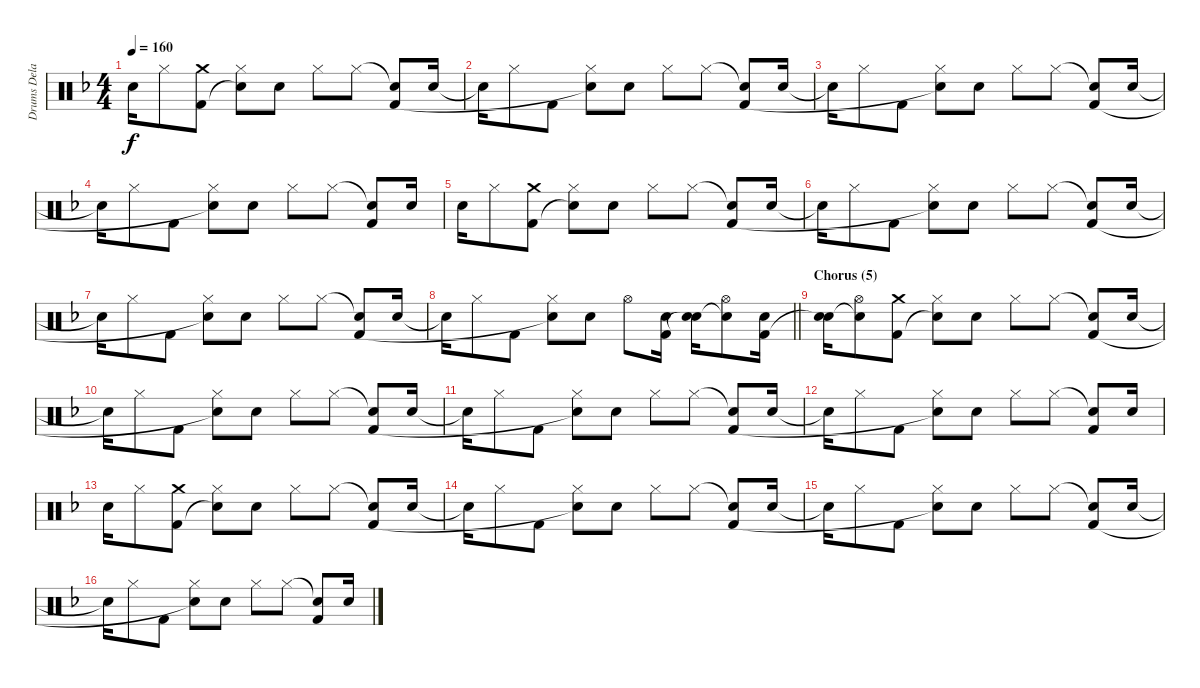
\track ("Drums Delay 2" "Drums Dela") {instrument percussion}
\staff {score}
\articulation defaults
\ts (4 4)
\tempo 160
\clef neutral
\ks f "Electric Snare (hit)".16{dy f} "Hi-Hat (closed)".8
("Crash medium (hit)" "Kick (hit) 2").8 ("Hi-Hat (closed)" "Snare (hit)"{t}).8 "Electric Snare (hit)".8 "Hi-Hat (closed)".8 "Hi-Hat (closed)".8 ("Snare (hit)"{t} "Kick (hit) 2").8 "Electric Snare (hit)".16 |
"Snare (hit)"{t}.16 "Hi-Hat (closed)".8 "Kick (hit) 2".8 ("Hi-Hat (closed)" "Snare (hit)"{t}).8 "Electric Snare (hit)".8 "Hi-Hat (closed)".8 "Hi-Hat (closed)".8 ("Snare (hit)"{t} "Kick (hit) 2").8 "Electric Snare (hit)".16 |
"Snare (hit)"{t}.16 "Hi-Hat (closed)".8 "Kick (hit) 2".8 ("Hi-Hat (closed)" "Snare (hit)"{t}).8 "Electric Snare (hit)".8 "Hi-Hat (closed)".8 "Hi-Hat (closed)".8 ("Snare (hit)"{t} "Kick (hit) 2").8 "Electric Snare (hit)".16 |
"Snare (hit)"{t}.16 "Hi-Hat (closed)".8 "Kick (hit) 2".8 ("Hi-Hat (closed)" "Snare (hit)"{t}).8 "Electric Snare (hit)".8 "Hi-Hat (closed)".8 "Hi-Hat (closed)".8 ("Snare (hit)"{t} "Kick (hit) 2").8 "Electric Snare (hit)".16 |
"Electric Snare (hit)".16 "Hi-Hat (closed)".8 ("Crash medium (hit)" "Kick (hit) 2").8 ("Hi-Hat (closed)" "Snare (hit)"{t}).8 "Electric Snare (hit)".8 "Hi-Hat (closed)".8 "Hi-Hat (closed)".8 ("Snare (hit)"{t} "Kick (hit) 2").8 "Electric Snare (hit)".16 |
"Snare (hit)"{t}.16 "Hi-Hat (closed)".8 "Kick (hit) 2".8 ("Hi-Hat (closed)" "Snare (hit)"{t}).8 "Electric Snare (hit)".8 "Hi-Hat (closed)".8 "Hi-Hat (closed)".8 ("Snare (hit)"{t} "Kick (hit) 2").8 "Electric Snare (hit)".16 |
"Snare (hit)"{t}.16 "Hi-Hat (closed)".8 "Kick (hit) 2".8 ("Hi-Hat (closed)" "Snare (hit)"{t}).8 "Electric Snare (hit)".8 "Hi-Hat (closed)".8 "Hi-Hat (closed)".8 ("Snare (hit)"{t} "Kick (hit) 2").8 "Electric Snare (hit)".16 |
\barLineRight lightlight "Snare (hit)"{t}.16 "Hi-Hat (closed)".8 "Kick (hit) 2".8
("Hi-Hat (closed)" "Snare (hit)"{t}).8 "Electric Snare (hit)".8 "Hi-Hat (open)".8 ("Electric Snare (hit)" "Kick (hit) 2").16 ("Electric Snare (hit)" "Snare (hit)"{t}).16 ("Hi-Hat (open)" "Snare (hit)"{t}).8 ("Electric Snare (hit)" "Kick (hit) 2").16 |
\section ("" "Chorus (5)")
("Electric Snare (hit)" "Snare (hit)"{t}).16 ("Hi-Hat (open)" "Snare (hit)"{t}).8 ("Crash medium (hit)" "Kick (hit) 2").8 ("Hi-Hat (closed)" "Snare (hit)"{t}).8 "Electric Snare (hit)".8 "Hi-Hat (closed)".8 "Hi-Hat (closed)".8 ("Snare (hit)"{t} "Kick (hit) 2").8 "Electric Snare (hit)".16 |
"Snare (hit)"{t}.16 "Hi-Hat (closed)".8 "Kick (hit) 2".8 ("Hi-Hat (closed)" "Snare (hit)"{t}).8 "Electric Snare (hit)".8 "Hi-Hat (closed)".8 "Hi-Hat (closed)".8 ("Snare (hit)"{t} "Kick (hit) 2").8 "Electric Snare (hit)".16 |
"Snare (hit)"{t}.16 "Hi-Hat (closed)".8 "Kick (hit) 2".8 ("Hi-Hat (closed)" "Snare (hit)"{t}).8 "Electric Snare (hit)".8 "Hi-Hat (closed)".8 "Hi-Hat (closed)".8 ("Snare (hit)"{t} "Kick (hit) 2").8 "Electric Snare (hit)".16 |
"Snare (hit)"{t}.16 "Hi-Hat (closed)".8 "Kick (hit) 2".8 ("Hi-Hat (closed)" "Snare (hit)"{t}).8 "Electric Snare (hit)".8 "Hi-Hat (closed)".8 "Hi-Hat (closed)".8 ("Snare (hit)"{t} "Kick (hit) 2").8 "Electric Snare (hit)".16 |
"Electric Snare (hit)".16 "Hi-Hat (closed)".8 ("Crash medium (hit)" "Kick (hit) 2").8 ("Hi-Hat (closed)" "Snare (hit)"{t}).8 "Electric Snare (hit)".8 "Hi-Hat (closed)".8 "Hi-Hat (closed)".8 ("Snare (hit)"{t} "Kick (hit) 2").8 "Electric Snare (hit)".16 |
"Snare (hit)"{t}.16 "Hi-Hat (closed)".8 "Kick (hit) 2".8 ("Hi-Hat (closed)" "Snare (hit)"{t}).8 "Electric Snare (hit)".8 "Hi-Hat (closed)".8 "Hi-Hat (closed)".8 ("Snare (hit)"{t} "Kick (hit) 2").8 "Electric Snare (hit)".16 |
"Snare (hit)"{t}.16 "Hi-Hat (closed)".8 "Kick (hit) 2".8 ("Hi-Hat (closed)" "Snare (hit)"{t}).8 "Electric Snare (hit)".8 "Hi-Hat (closed)".8 "Hi-Hat (closed)".8 ("Snare (hit)"{t} "Kick (hit) 2").8 "Electric Snare (hit)".16 |
"Snare (hit)"{t}.16 "Hi-Hat (closed)".8 "Kick (hit) 2".8 ("Hi-Hat (closed)" "Snare (hit)"{t}).8 "Electric Snare (hit)".8 "Hi-Hat (closed)".8 "Hi-Hat (closed)".8 ("Snare (hit)"{t} "Kick (hit) 2").8 "Electric Snare (hit)".16
